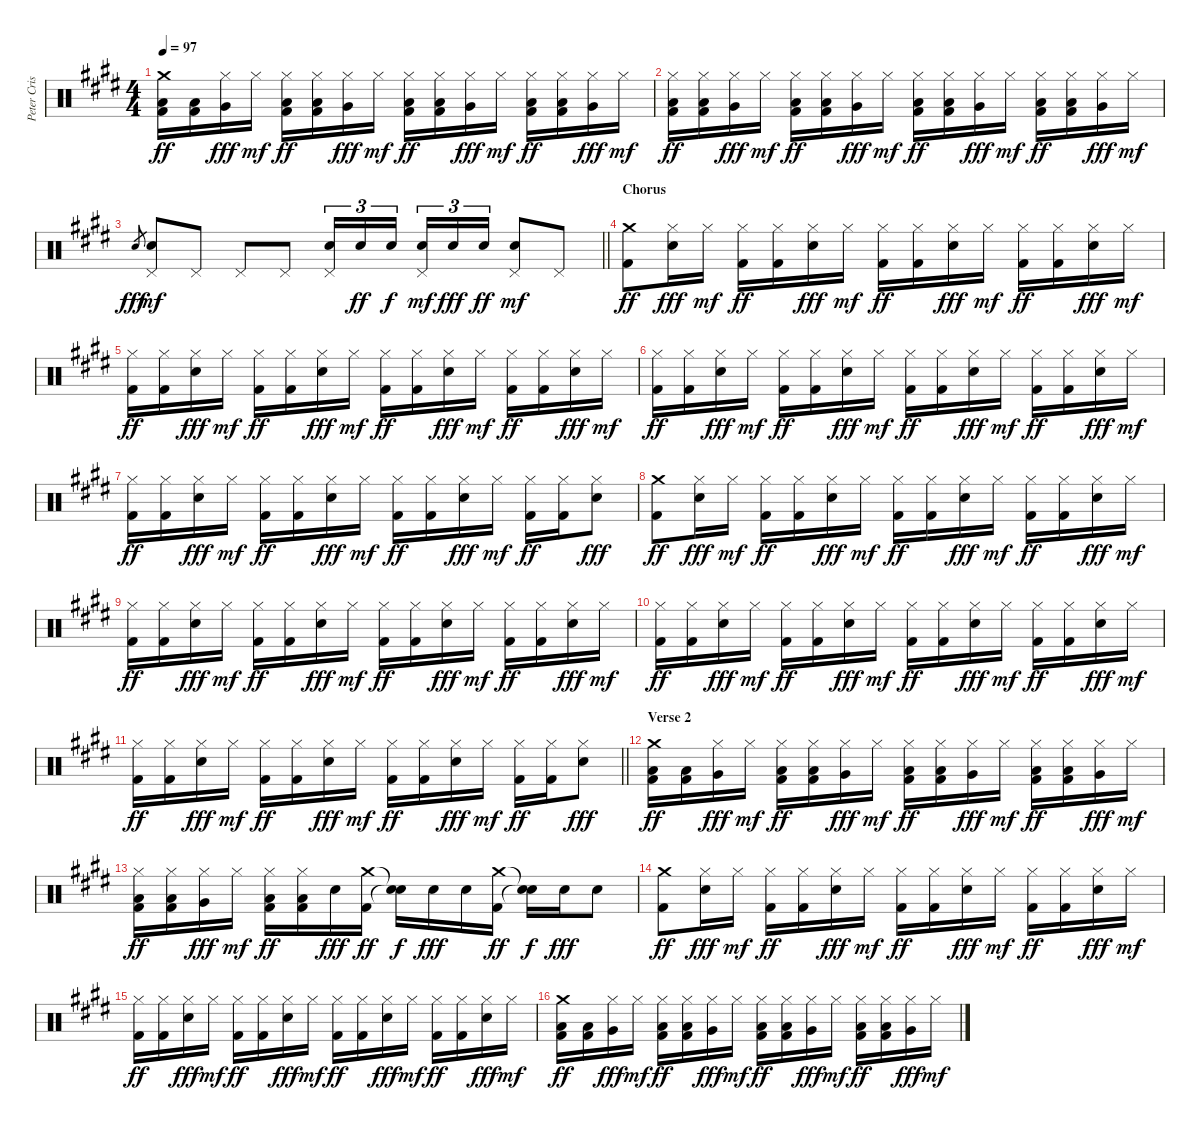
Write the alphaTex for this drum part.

\track ("Peter Criss" "Peter Cris") {instrument percussion}
\staff {score}
\articulation defaults
\ts (4 4)
\tempo 97
\clef neutral
\ks c#minor
("Crash medium (hit)" "Low Floor Tom (hit)" "Kick (hit) 2").16{dy ff} ("Low Floor Tom (hit)" "Kick (hit) 2").16 ("Hi-Hat (closed)" "Very Low Tom (hit)").16{dy fff} "Hi-Hat (closed)".16{dy mf} ("Hi-Hat (closed)" "Low Floor Tom (hit)" "Kick (hit) 2").16{dy ff} ("Hi-Hat (closed)" "Low Floor Tom (hit)" "Kick (hit) 2").16 ("Hi-Hat (closed)" "Very Low Tom (hit)").16{dy fff} "Hi-Hat (closed)".16{dy mf} ("Hi-Hat (closed)" "Low Floor Tom (hit)" "Kick (hit) 2").16{dy ff} ("Hi-Hat (closed)" "Low Floor Tom (hit)" "Kick (hit) 2").16 ("Hi-Hat (closed)" "Very Low Tom (hit)").16{dy fff} "Hi-Hat (closed)".16{dy mf} ("Hi-Hat (closed)" "Low Floor Tom (hit)" "Kick (hit) 2").16{dy ff} ("Hi-Hat (closed)" "Low Floor Tom (hit)" "Kick (hit) 2").16 ("Hi-Hat (closed)" "Very Low Tom (hit)").16{dy fff} "Hi-Hat (closed)".16{dy mf} |
("Hi-Hat (closed)" "Low Floor Tom (hit)" "Kick (hit) 2").16{dy ff} ("Hi-Hat (closed)" "Low Floor Tom (hit)" "Kick (hit) 2").16 ("Hi-Hat (closed)" "Very Low Tom (hit)").16{dy fff} "Hi-Hat (closed)".16{dy mf} ("Hi-Hat (closed)" "Low Floor Tom (hit)" "Kick (hit) 2").16{dy ff} ("Hi-Hat (closed)" "Low Floor Tom (hit)" "Kick (hit) 2").16 ("Hi-Hat (closed)" "Very Low Tom (hit)").16{dy fff} "Hi-Hat (closed)".16{dy mf} ("Hi-Hat (closed)" "Low Floor Tom (hit)" "Kick (hit) 2").16{dy ff} ("Hi-Hat (closed)" "Low Floor Tom (hit)" "Kick (hit) 2").16 ("Hi-Hat (closed)" "Very Low Tom (hit)").16{dy fff} "Hi-Hat (closed)".16{dy mf} ("Hi-Hat (closed)" "Low Floor Tom (hit)" "Kick (hit) 2").16{dy ff} ("Hi-Hat (closed)" "Low Floor Tom (hit)" "Kick (hit) 2").16 ("Hi-Hat (closed)" "Very Low Tom (hit)").16{dy fff} "Hi-Hat (closed)".16{dy mf} |
\barLineRight lightlight "Snare (hit) 2".8{gr dy fff}
("Snare (hit) 2" "Pedal Hi-Hat (hit)").8{dy mf} "Pedal Hi-Hat (hit)".8 "Pedal Hi-Hat (hit)".8 "Pedal Hi-Hat (hit)".8 ("Snare (hit) 2" "Pedal Hi-Hat (hit)").16{tu (3 2)} "Snare (hit) 2".16{tu (3 2) dy ff} "Snare (hit) 2".16{tu (3 2) dy f beam splitsecondary} ("Snare (hit) 2" "Pedal Hi-Hat (hit)").16{tu (3 2) dy mf} "Snare (hit) 2".16{tu (3 2) dy fff} "Snare (hit) 2".16{tu (3 2) dy ff} ("Snare (hit) 2" "Pedal Hi-Hat (hit)").8{dy mf} "Pedal Hi-Hat (hit)".8 |
\section ("" "Chorus")
("Crash medium (hit)" "Kick (hit) 2").8{dy ff} ("Hi-Hat (closed)" "Snare (hit) 2").16{dy fff} "Hi-Hat (closed)".16{dy mf} ("Hi-Hat (closed)" "Kick (hit) 2").16{dy ff} ("Hi-Hat (closed)" "Kick (hit) 2").16 ("Hi-Hat (closed)" "Snare (hit) 2").16{dy fff} "Hi-Hat (closed)".16{dy mf} ("Hi-Hat (closed)" "Kick (hit) 2").16{dy ff} ("Hi-Hat (closed)" "Kick (hit) 2").16 ("Hi-Hat (closed)" "Snare (hit) 2").16{dy fff} "Hi-Hat (closed)".16{dy mf} ("Hi-Hat (closed)" "Kick (hit) 2").16{dy ff} ("Hi-Hat (closed)" "Kick (hit) 2").16 ("Hi-Hat (closed)" "Snare (hit) 2").16{dy fff} "Hi-Hat (closed)".16{dy mf} |
("Hi-Hat (closed)" "Kick (hit) 2").16{dy ff} ("Hi-Hat (closed)" "Kick (hit) 2").16 ("Hi-Hat (closed)" "Snare (hit) 2").16{dy fff} "Hi-Hat (closed)".16{dy mf} ("Hi-Hat (closed)" "Kick (hit) 2").16{dy ff} ("Hi-Hat (closed)" "Kick (hit) 2").16 ("Hi-Hat (closed)" "Snare (hit) 2").16{dy fff} "Hi-Hat (closed)".16{dy mf} ("Hi-Hat (closed)" "Kick (hit) 2").16{dy ff} ("Hi-Hat (closed)" "Kick (hit) 2").16 ("Hi-Hat (closed)" "Snare (hit) 2").16{dy fff} "Hi-Hat (closed)".16{dy mf} ("Hi-Hat (closed)" "Kick (hit) 2").16{dy ff} ("Hi-Hat (closed)" "Kick (hit) 2").16 ("Hi-Hat (closed)" "Snare (hit) 2").16{dy fff} "Hi-Hat (closed)".16{dy mf} |
("Hi-Hat (closed)" "Kick (hit) 2").16{dy ff} ("Hi-Hat (closed)" "Kick (hit) 2").16 ("Hi-Hat (closed)" "Snare (hit) 2").16{dy fff} "Hi-Hat (closed)".16{dy mf} ("Hi-Hat (closed)" "Kick (hit) 2").16{dy ff} ("Hi-Hat (closed)" "Kick (hit) 2").16 ("Hi-Hat (closed)" "Snare (hit) 2").16{dy fff} "Hi-Hat (closed)".16{dy mf} ("Hi-Hat (closed)" "Kick (hit) 2").16{dy ff} ("Hi-Hat (closed)" "Kick (hit) 2").16 ("Hi-Hat (closed)" "Snare (hit) 2").16{dy fff} "Hi-Hat (closed)".16{dy mf} ("Hi-Hat (closed)" "Kick (hit) 2").16{dy ff} ("Hi-Hat (closed)" "Kick (hit) 2").16 ("Hi-Hat (closed)" "Snare (hit) 2").16{dy fff} "Hi-Hat (closed)".16{dy mf} |
("Hi-Hat (closed)" "Kick (hit) 2").16{dy ff} ("Hi-Hat (closed)" "Kick (hit) 2").16 ("Hi-Hat (closed)" "Snare (hit) 2").16{dy fff} "Hi-Hat (closed)".16{dy mf} ("Hi-Hat (closed)" "Kick (hit) 2").16{dy ff} ("Hi-Hat (closed)" "Kick (hit) 2").16 ("Hi-Hat (closed)" "Snare (hit) 2").16{dy fff} "Hi-Hat (closed)".16{dy mf} ("Hi-Hat (closed)" "Kick (hit) 2").16{dy ff} ("Hi-Hat (closed)" "Kick (hit) 2").16 ("Hi-Hat (closed)" "Snare (hit) 2").16{dy fff} "Hi-Hat (closed)".16{dy mf} ("Hi-Hat (closed)" "Kick (hit) 2").16{dy ff} ("Hi-Hat (closed)" "Kick (hit) 2").16 ("Hi-Hat (closed)" "Snare (hit) 2").8{dy fff} |
("Crash medium (hit)" "Kick (hit) 2").8{dy ff} ("Hi-Hat (closed)" "Snare (hit) 2").16{dy fff} "Hi-Hat (closed)".16{dy mf} ("Hi-Hat (closed)" "Kick (hit) 2").16{dy ff} ("Hi-Hat (closed)" "Kick (hit) 2").16 ("Hi-Hat (closed)" "Snare (hit) 2").16{dy fff} "Hi-Hat (closed)".16{dy mf} ("Hi-Hat (closed)" "Kick (hit) 2").16{dy ff} ("Hi-Hat (closed)" "Kick (hit) 2").16 ("Hi-Hat (closed)" "Snare (hit) 2").16{dy fff} "Hi-Hat (closed)".16{dy mf} ("Hi-Hat (closed)" "Kick (hit) 2").16{dy ff} ("Hi-Hat (closed)" "Kick (hit) 2").16 ("Hi-Hat (closed)" "Snare (hit) 2").16{dy fff} "Hi-Hat (closed)".16{dy mf} |
("Hi-Hat (closed)" "Kick (hit) 2").16{dy ff} ("Hi-Hat (closed)" "Kick (hit) 2").16 ("Hi-Hat (closed)" "Snare (hit) 2").16{dy fff} "Hi-Hat (closed)".16{dy mf} ("Hi-Hat (closed)" "Kick (hit) 2").16{dy ff} ("Hi-Hat (closed)" "Kick (hit) 2").16 ("Hi-Hat (closed)" "Snare (hit) 2").16{dy fff} "Hi-Hat (closed)".16{dy mf} ("Hi-Hat (closed)" "Kick (hit) 2").16{dy ff} ("Hi-Hat (closed)" "Kick (hit) 2").16 ("Hi-Hat (closed)" "Snare (hit) 2").16{dy fff} "Hi-Hat (closed)".16{dy mf} ("Hi-Hat (closed)" "Kick (hit) 2").16{dy ff} ("Hi-Hat (closed)" "Kick (hit) 2").16 ("Hi-Hat (closed)" "Snare (hit) 2").16{dy fff} "Hi-Hat (closed)".16{dy mf} |
("Hi-Hat (closed)" "Kick (hit) 2").16{dy ff} ("Hi-Hat (closed)" "Kick (hit) 2").16 ("Hi-Hat (closed)" "Snare (hit) 2").16{dy fff} "Hi-Hat (closed)".16{dy mf} ("Hi-Hat (closed)" "Kick (hit) 2").16{dy ff} ("Hi-Hat (closed)" "Kick (hit) 2").16 ("Hi-Hat (closed)" "Snare (hit) 2").16{dy fff} "Hi-Hat (closed)".16{dy mf} ("Hi-Hat (closed)" "Kick (hit) 2").16{dy ff} ("Hi-Hat (closed)" "Kick (hit) 2").16 ("Hi-Hat (closed)" "Snare (hit) 2").16{dy fff} "Hi-Hat (closed)".16{dy mf} ("Hi-Hat (closed)" "Kick (hit) 2").16{dy ff} ("Hi-Hat (closed)" "Kick (hit) 2").16 ("Hi-Hat (closed)" "Snare (hit) 2").16{dy fff} "Hi-Hat (closed)".16{dy mf} |
\barLineRight lightlight
("Hi-Hat (closed)" "Kick (hit) 2").16{dy ff} ("Hi-Hat (closed)" "Kick (hit) 2").16 ("Hi-Hat (closed)" "Snare (hit) 2").16{dy fff} "Hi-Hat (closed)".16{dy mf} ("Hi-Hat (closed)" "Kick (hit) 2").16{dy ff} ("Hi-Hat (closed)" "Kick (hit) 2").16 ("Hi-Hat (closed)" "Snare (hit) 2").16{dy fff} "Hi-Hat (closed)".16{dy mf} ("Hi-Hat (closed)" "Kick (hit) 2").16{dy ff} ("Hi-Hat (closed)" "Kick (hit) 2").16 ("Hi-Hat (closed)" "Snare (hit) 2").16{dy fff} "Hi-Hat (closed)".16{dy mf} ("Hi-Hat (closed)" "Kick (hit) 2").16{dy ff} ("Hi-Hat (closed)" "Kick (hit) 2").16 ("Hi-Hat (closed)" "Snare (hit) 2").8{dy fff} |
\section ("" "Verse 2")
("Crash medium (hit)" "Low Floor Tom (hit)" "Kick (hit) 2").16{dy ff} ("Low Floor Tom (hit)" "Kick (hit) 2").16 ("Hi-Hat (closed)" "Very Low Tom (hit)").16{dy fff} "Hi-Hat (closed)".16{dy mf} ("Hi-Hat (closed)" "Low Floor Tom (hit)" "Kick (hit) 2").16{dy ff} ("Hi-Hat (closed)" "Low Floor Tom (hit)" "Kick (hit) 2").16 ("Hi-Hat (closed)" "Very Low Tom (hit)").16{dy fff} "Hi-Hat (closed)".16{dy mf} ("Hi-Hat (closed)" "Low Floor Tom (hit)" "Kick (hit) 2").16{dy ff} ("Hi-Hat (closed)" "Low Floor Tom (hit)" "Kick (hit) 2").16 ("Hi-Hat (closed)" "Very Low Tom (hit)").16{dy fff} "Hi-Hat (closed)".16{dy mf} ("Hi-Hat (closed)" "Low Floor Tom (hit)" "Kick (hit) 2").16{dy ff} ("Hi-Hat (closed)" "Low Floor Tom (hit)" "Kick (hit) 2").16 ("Hi-Hat (closed)" "Very Low Tom (hit)").16{dy fff} "Hi-Hat (closed)".16{dy mf} |
("Hi-Hat (closed)" "Low Floor Tom (hit)" "Kick (hit) 2").16{dy ff} ("Hi-Hat (closed)" "Low Floor Tom (hit)" "Kick (hit) 2").16 ("Hi-Hat (closed)" "Very Low Tom (hit)").16{dy fff} "Hi-Hat (closed)".16{dy mf} ("Hi-Hat (closed)" "Low Floor Tom (hit)" "Kick (hit) 2").16{dy ff} ("Hi-Hat (closed)" "Low Floor Tom (hit)" "Kick (hit) 2").16 "Snare (hit) 2".16{dy fff} ("Crash medium (hit)" "Kick (hit) 2").16{dy ff} ("Snare (hit)"{t} "Snare (hit)"{t}).16{dy f} "Snare (hit) 2".16{dy fff} "Snare (hit) 2".16 ("Crash medium (hit)" "Kick (hit) 2").16{dy ff} ("Snare (hit)"{t} "Snare (hit)"{t}).16{dy f} "Snare (hit) 2".16{dy fff} "Snare (hit) 2".8 |
("Crash medium (hit)" "Kick (hit) 2").8{dy ff} ("Hi-Hat (closed)" "Snare (hit) 2").16{dy fff} "Hi-Hat (closed)".16{dy mf} ("Hi-Hat (closed)" "Kick (hit) 2").16{dy ff} ("Hi-Hat (closed)" "Kick (hit) 2").16 ("Hi-Hat (closed)" "Snare (hit) 2").16{dy fff} "Hi-Hat (closed)".16{dy mf} ("Hi-Hat (closed)" "Kick (hit) 2").16{dy ff} ("Hi-Hat (closed)" "Kick (hit) 2").16 ("Hi-Hat (closed)" "Snare (hit) 2").16{dy fff} "Hi-Hat (closed)".16{dy mf} ("Hi-Hat (closed)" "Kick (hit) 2").16{dy ff} ("Hi-Hat (closed)" "Kick (hit) 2").16 ("Hi-Hat (closed)" "Snare (hit) 2").16{dy fff} "Hi-Hat (closed)".16{dy mf} |
("Hi-Hat (closed)" "Kick (hit) 2").16{dy ff} ("Hi-Hat (closed)" "Kick (hit) 2").16 ("Hi-Hat (closed)" "Snare (hit) 2").16{dy fff} "Hi-Hat (closed)".16{dy mf} ("Hi-Hat (closed)" "Kick (hit) 2").16{dy ff} ("Hi-Hat (closed)" "Kick (hit) 2").16 ("Hi-Hat (closed)" "Snare (hit) 2").16{dy fff} "Hi-Hat (closed)".16{dy mf} ("Hi-Hat (closed)" "Kick (hit) 2").16{dy ff} ("Hi-Hat (closed)" "Kick (hit) 2").16 ("Hi-Hat (closed)" "Snare (hit) 2").16{dy fff} "Hi-Hat (closed)".16{dy mf} ("Hi-Hat (closed)" "Kick (hit) 2").16{dy ff} ("Hi-Hat (closed)" "Kick (hit) 2").16 ("Hi-Hat (closed)" "Snare (hit) 2").16{dy fff} "Hi-Hat (closed)".16{dy mf} |
("Crash medium (hit)" "Low Floor Tom (hit)" "Kick (hit) 2").16{dy ff} ("Low Floor Tom (hit)" "Kick (hit) 2").16 ("Hi-Hat (closed)" "Very Low Tom (hit)").16{dy fff} "Hi-Hat (closed)".16{dy mf} ("Hi-Hat (closed)" "Low Floor Tom (hit)" "Kick (hit) 2").16{dy ff} ("Hi-Hat (closed)" "Low Floor Tom (hit)" "Kick (hit) 2").16 ("Hi-Hat (closed)" "Very Low Tom (hit)").16{dy fff} "Hi-Hat (closed)".16{dy mf} ("Hi-Hat (closed)" "Low Floor Tom (hit)" "Kick (hit) 2").16{dy ff} ("Hi-Hat (closed)" "Low Floor Tom (hit)" "Kick (hit) 2").16 ("Hi-Hat (closed)" "Very Low Tom (hit)").16{dy fff} "Hi-Hat (closed)".16{dy mf} ("Hi-Hat (closed)" "Low Floor Tom (hit)" "Kick (hit) 2").16{dy ff} ("Hi-Hat (closed)" "Low Floor Tom (hit)" "Kick (hit) 2").16 ("Hi-Hat (closed)" "Very Low Tom (hit)").16{dy fff} "Hi-Hat (closed)".16{dy mf}
